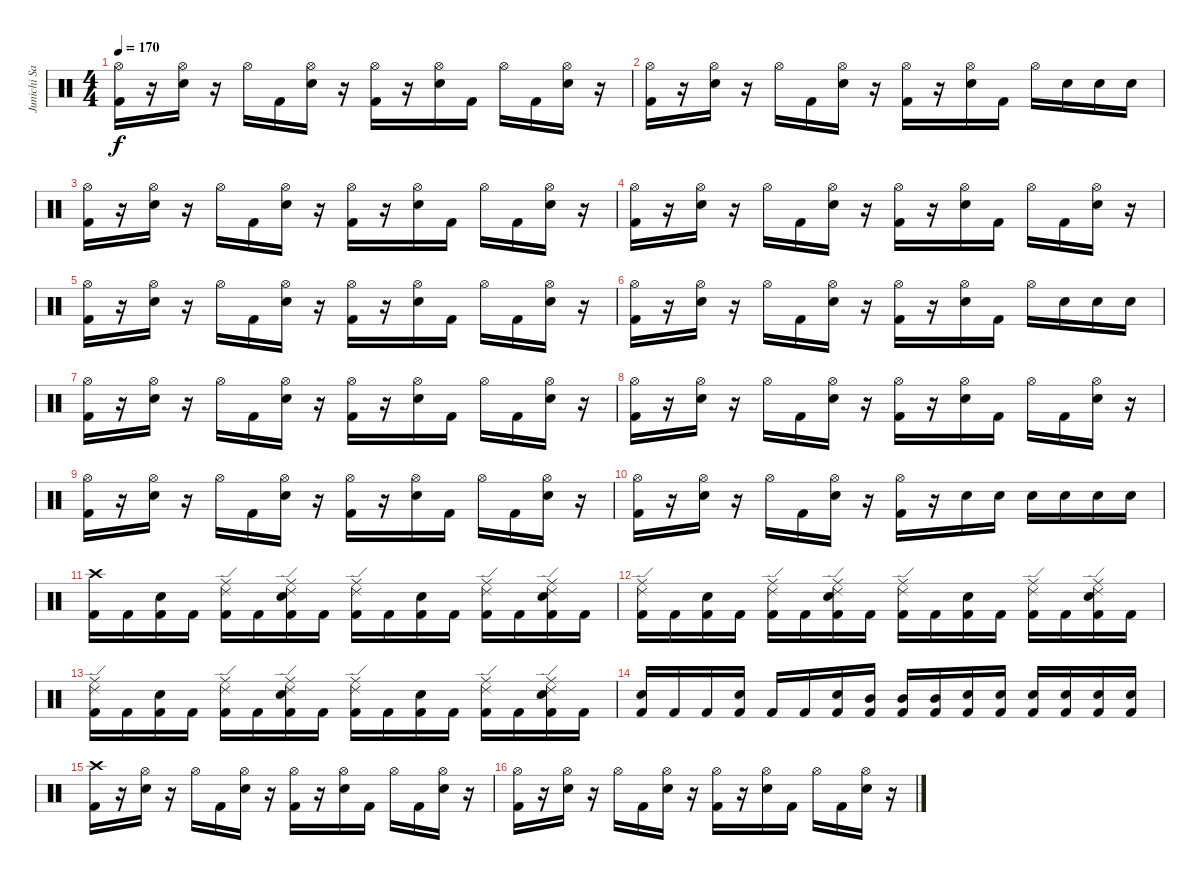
\track ("Junichi Sato" "Junichi Sa") {instrument percussion}
\staff {score}
\articulation defaults
\ts (4 4)
\tempo 170
\clef neutral
\ks c
("Hi-Hat (open)" "Kick (hit) 2").16{dy f} r.16 ("Hi-Hat (open)" "Electric Snare (hit)").16 r.16 "Hi-Hat (open)".16 "Kick (hit) 2".16 ("Hi-Hat (open)" "Electric Snare (hit)").16 r.16 ("Hi-Hat (open)" "Kick (hit) 2").16 r.16 ("Hi-Hat (open)" "Electric Snare (hit)").16 "Kick (hit) 2".16 "Hi-Hat (open)".16 "Kick (hit) 2".16 ("Hi-Hat (open)" "Electric Snare (hit)").16 r.16 |
("Hi-Hat (open)" "Kick (hit) 2").16 r.16 ("Hi-Hat (open)" "Electric Snare (hit)").16 r.16 "Hi-Hat (open)".16 "Kick (hit) 2".16 ("Hi-Hat (open)" "Electric Snare (hit)").16 r.16 ("Hi-Hat (open)" "Kick (hit) 2").16 r.16 ("Hi-Hat (open)" "Electric Snare (hit)").16 "Kick (hit) 2".16 "Hi-Hat (open)".16 "Electric Snare (hit)".16 "Electric Snare (hit)".16 "Electric Snare (hit)".16 |
("Hi-Hat (open)" "Kick (hit) 2").16 r.16 ("Hi-Hat (open)" "Electric Snare (hit)").16 r.16 "Hi-Hat (open)".16 "Kick (hit) 2".16 ("Hi-Hat (open)" "Electric Snare (hit)").16 r.16 ("Hi-Hat (open)" "Kick (hit) 2").16 r.16 ("Hi-Hat (open)" "Electric Snare (hit)").16 "Kick (hit) 2".16 "Hi-Hat (open)".16 "Kick (hit) 2".16 ("Hi-Hat (open)" "Electric Snare (hit)").16 r.16 |
("Hi-Hat (open)" "Kick (hit) 2").16 r.16 ("Hi-Hat (open)" "Electric Snare (hit)").16 r.16 "Hi-Hat (open)".16 "Kick (hit) 2".16 ("Hi-Hat (open)" "Electric Snare (hit)").16 r.16 ("Hi-Hat (open)" "Kick (hit) 2").16 r.16 ("Hi-Hat (open)" "Electric Snare (hit)").16 "Kick (hit) 2".16 "Hi-Hat (open)".16 "Kick (hit) 2".16 ("Hi-Hat (open)" "Electric Snare (hit)").16 r.16 |
("Hi-Hat (open)" "Kick (hit) 2").16 r.16 ("Hi-Hat (open)" "Electric Snare (hit)").16 r.16 "Hi-Hat (open)".16 "Kick (hit) 2".16 ("Hi-Hat (open)" "Electric Snare (hit)").16 r.16 ("Hi-Hat (open)" "Kick (hit) 2").16 r.16 ("Hi-Hat (open)" "Electric Snare (hit)").16 "Kick (hit) 2".16 "Hi-Hat (open)".16 "Kick (hit) 2".16 ("Hi-Hat (open)" "Electric Snare (hit)").16 r.16 |
("Hi-Hat (open)" "Kick (hit) 2").16 r.16 ("Hi-Hat (open)" "Electric Snare (hit)").16 r.16 "Hi-Hat (open)".16 "Kick (hit) 2".16 ("Hi-Hat (open)" "Electric Snare (hit)").16 r.16 ("Hi-Hat (open)" "Kick (hit) 2").16 r.16 ("Hi-Hat (open)" "Electric Snare (hit)").16 "Kick (hit) 2".16 "Hi-Hat (open)".16 "Electric Snare (hit)".16 "Electric Snare (hit)".16 "Electric Snare (hit)".16 |
("Hi-Hat (open)" "Kick (hit) 2").16 r.16 ("Hi-Hat (open)" "Electric Snare (hit)").16 r.16 "Hi-Hat (open)".16 "Kick (hit) 2".16 ("Hi-Hat (open)" "Electric Snare (hit)").16 r.16 ("Hi-Hat (open)" "Kick (hit) 2").16 r.16 ("Hi-Hat (open)" "Electric Snare (hit)").16 "Kick (hit) 2".16 "Hi-Hat (open)".16 "Kick (hit) 2".16 ("Hi-Hat (open)" "Electric Snare (hit)").16 r.16 |
("Hi-Hat (open)" "Kick (hit) 2").16 r.16 ("Hi-Hat (open)" "Electric Snare (hit)").16 r.16 "Hi-Hat (open)".16 "Kick (hit) 2".16 ("Hi-Hat (open)" "Electric Snare (hit)").16 r.16 ("Hi-Hat (open)" "Kick (hit) 2").16 r.16 ("Hi-Hat (open)" "Electric Snare (hit)").16 "Kick (hit) 2".16 "Hi-Hat (open)".16 "Kick (hit) 2".16 ("Hi-Hat (open)" "Electric Snare (hit)").16 r.16 |
("Hi-Hat (open)" "Kick (hit) 2").16 r.16 ("Hi-Hat (open)" "Electric Snare (hit)").16 r.16 "Hi-Hat (open)".16 "Kick (hit) 2".16 ("Hi-Hat (open)" "Electric Snare (hit)").16 r.16 ("Hi-Hat (open)" "Kick (hit) 2").16 r.16 ("Hi-Hat (open)" "Electric Snare (hit)").16 "Kick (hit) 2".16 "Hi-Hat (open)".16 "Kick (hit) 2".16 ("Hi-Hat (open)" "Electric Snare (hit)").16 r.16 |
("Hi-Hat (open)" "Kick (hit) 2").16 r.16 ("Hi-Hat (open)" "Electric Snare (hit)").16 r.16 "Hi-Hat (open)".16 "Kick (hit) 2".16 ("Hi-Hat (open)" "Electric Snare (hit)").16 r.16 ("Hi-Hat (open)" "Kick (hit) 2").16 r.16 "Electric Snare (hit)".16 "Electric Snare (hit)".16 "Electric Snare (hit)".16 "Electric Snare (hit)".16 "Electric Snare (hit)".16 "Electric Snare (hit)".16 |
("Crash high (hit)" "Kick (hit) 2").16 "Kick (hit) 2".16 ("Electric Snare (hit)" "Kick (hit) 2").16 "Kick (hit) 2".16 ("Ride (edge) 2" "Ride (middle)" "Kick (hit) 2").16 "Kick (hit) 2".16 ("Ride (edge) 2" "Ride (middle)" "Electric Snare (hit)" "Kick (hit) 2").16 "Kick (hit) 2".16 ("Ride (edge) 2" "Ride (middle)" "Kick (hit) 2").16 "Kick (hit) 2".16 ("Electric Snare (hit)" "Kick (hit) 2").16 "Kick (hit) 2".16 ("Ride (edge) 2" "Ride (middle)" "Kick (hit) 2").16 "Kick (hit) 2".16 ("Ride (edge) 2" "Ride (middle)" "Electric Snare (hit)" "Kick (hit) 2").16 "Kick (hit) 2".16 |
("Ride (edge) 2" "Ride (middle)" "Kick (hit) 2").16 "Kick (hit) 2".16 ("Electric Snare (hit)" "Kick (hit) 2").16 "Kick (hit) 2".16 ("Ride (edge) 2" "Ride (middle)" "Kick (hit) 2").16 "Kick (hit) 2".16 ("Ride (edge) 2" "Ride (middle)" "Electric Snare (hit)" "Kick (hit) 2").16 "Kick (hit) 2".16 ("Ride (edge) 2" "Ride (middle)" "Kick (hit) 2").16 "Kick (hit) 2".16 ("Electric Snare (hit)" "Kick (hit) 2").16 "Kick (hit) 2".16 ("Ride (edge) 2" "Ride (middle)" "Kick (hit) 2").16 "Kick (hit) 2".16 ("Ride (edge) 2" "Ride (middle)" "Electric Snare (hit)" "Kick (hit) 2").16 "Kick (hit) 2".16 |
("Ride (edge) 2" "Ride (middle)" "Kick (hit) 2").16 "Kick (hit) 2".16 ("Electric Snare (hit)" "Kick (hit) 2").16 "Kick (hit) 2".16 ("Ride (edge) 2" "Ride (middle)" "Kick (hit) 2").16 "Kick (hit) 2".16 ("Ride (edge) 2" "Ride (middle)" "Electric Snare (hit)" "Kick (hit) 2").16 "Kick (hit) 2".16 ("Ride (edge) 2" "Ride (middle)" "Kick (hit) 2").16 "Kick (hit) 2".16 ("Electric Snare (hit)" "Kick (hit) 2").16 "Kick (hit) 2".16 ("Ride (edge) 2" "Ride (middle)" "Kick (hit) 2").16 "Kick (hit) 2".16 ("Ride (edge) 2" "Ride (middle)" "Electric Snare (hit)" "Kick (hit) 2").16 "Kick (hit) 2".16 |
("Electric Snare (hit)" "Kick (hit) 2").16 "Kick (hit) 2".16 "Kick (hit) 2".16 ("Electric Snare (hit)" "Kick (hit) 2").16 "Kick (hit) 2".16 "Kick (hit) 2".16 ("Electric Snare (hit)" "Kick (hit) 2").16 ("Mid Tom (hit)" "Kick (hit) 2").16 ("Mid Tom (hit)" "Kick (hit) 2").16 ("Mid Tom (hit)" "Kick (hit) 2").16 ("Electric Snare (hit)" "Kick (hit) 2").16 ("Electric Snare (hit)" "Kick (hit) 2").16 ("Electric Snare (hit)" "Kick (hit) 2").16 ("Electric Snare (hit)" "Kick (hit) 2").16 ("Electric Snare (hit)" "Kick (hit) 2").16 ("Electric Snare (hit)" "Kick (hit) 2").16 |
("Crash high (hit)" "Kick (hit) 2").16 r.16 ("Hi-Hat (open)" "Electric Snare (hit)").16 r.16 "Hi-Hat (open)".16 "Kick (hit) 2".16 ("Hi-Hat (open)" "Electric Snare (hit)").16 r.16 ("Hi-Hat (open)" "Kick (hit) 2").16 r.16 ("Hi-Hat (open)" "Electric Snare (hit)").16 "Kick (hit) 2".16 "Hi-Hat (open)".16 "Kick (hit) 2".16 ("Hi-Hat (open)" "Electric Snare (hit)").16 r.16 |
("Hi-Hat (open)" "Kick (hit) 2").16 r.16 ("Hi-Hat (open)" "Electric Snare (hit)").16 r.16 "Hi-Hat (open)".16 "Kick (hit) 2".16 ("Hi-Hat (open)" "Electric Snare (hit)").16 r.16 ("Hi-Hat (open)" "Kick (hit) 2").16 r.16 ("Hi-Hat (open)" "Electric Snare (hit)").16 "Kick (hit) 2".16 "Hi-Hat (open)".16 "Kick (hit) 2".16 ("Hi-Hat (open)" "Electric Snare (hit)").16 r.16
